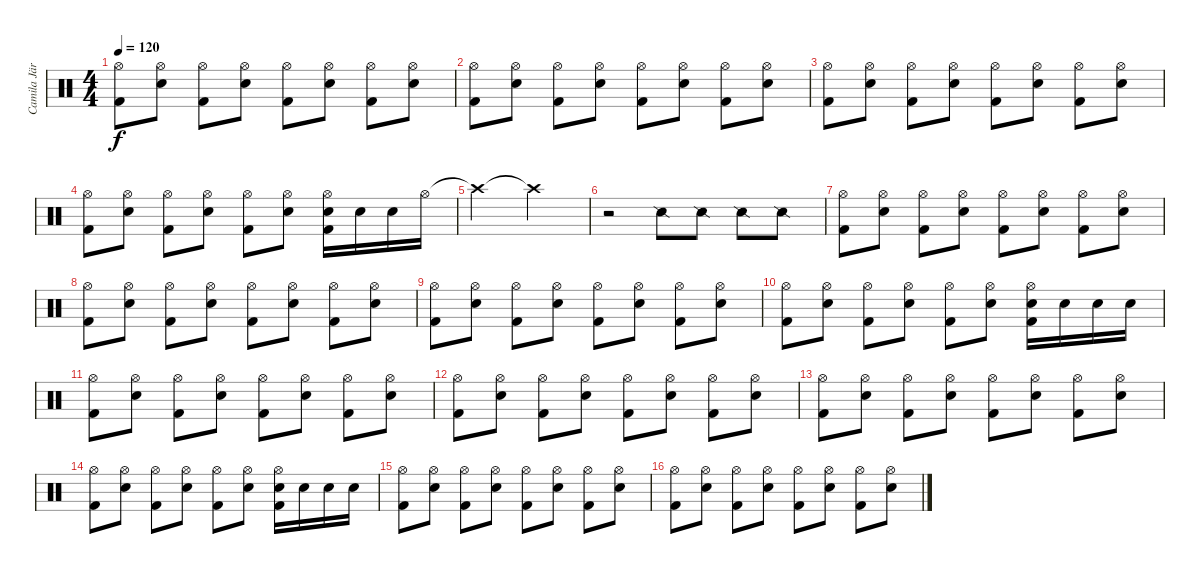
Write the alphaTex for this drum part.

\track ("Camila Jära" "Camila Jär") {instrument percussion}
\staff {score}
\articulation defaults
\ts (4 4)
\tempo 120
\clef neutral
\ks c
("Hi-Hat (open)" "Kick (hit) 2").8{dy f} ("Hi-Hat (open)" "Snare (hit) 2").8 ("Hi-Hat (open)" "Kick (hit) 2").8 ("Hi-Hat (open)" "Snare (hit) 2").8 ("Hi-Hat (open)" "Kick (hit) 2").8 ("Hi-Hat (open)" "Snare (hit) 2").8 ("Hi-Hat (open)" "Kick (hit) 2").8 ("Hi-Hat (open)" "Snare (hit) 2").8 |
("Hi-Hat (open)" "Kick (hit) 2").8 ("Hi-Hat (open)" "Snare (hit) 2").8 ("Hi-Hat (open)" "Kick (hit) 2").8 ("Hi-Hat (open)" "Snare (hit) 2").8 ("Hi-Hat (open)" "Kick (hit) 2").8 ("Hi-Hat (open)" "Snare (hit) 2").8 ("Hi-Hat (open)" "Kick (hit) 2").8 ("Hi-Hat (open)" "Snare (hit) 2").8 |
("Hi-Hat (open)" "Kick (hit) 2").8 ("Hi-Hat (open)" "Snare (hit) 2").8 ("Hi-Hat (open)" "Kick (hit) 2").8 ("Hi-Hat (open)" "Snare (hit) 2").8 ("Hi-Hat (open)" "Kick (hit) 2").8 ("Hi-Hat (open)" "Snare (hit) 2").8 ("Hi-Hat (open)" "Kick (hit) 2").8 ("Hi-Hat (open)" "Snare (hit) 2").8 |
("Hi-Hat (open)" "Kick (hit) 2").8 ("Hi-Hat (open)" "Snare (hit) 2").8 ("Hi-Hat (open)" "Kick (hit) 2").8 ("Hi-Hat (open)" "Snare (hit) 2").8 ("Hi-Hat (open)" "Kick (hit) 2").8 ("Hi-Hat (open)" "Snare (hit) 2").8 ("Hi-Hat (open)" "Snare (hit) 2" "Kick (hit) 2").16 "Snare (hit) 2".16 "Snare (hit) 2".16 "Hi-Hat (open)".16 |
"Crash high (hit)"{t}.2 "Crash high (hit)"{t}.2 |
r.2 "Snare (side stick) 2".8 "Snare (side stick) 2".8 "Snare (side stick) 2".8 "Snare (side stick) 2".8 |
("Hi-Hat (open)" "Kick (hit) 2").8 ("Hi-Hat (open)" "Snare (hit) 2").8 ("Hi-Hat (open)" "Kick (hit) 2").8 ("Hi-Hat (open)" "Snare (hit) 2").8 ("Hi-Hat (open)" "Kick (hit) 2").8 ("Hi-Hat (open)" "Snare (hit) 2").8 ("Hi-Hat (open)" "Kick (hit) 2").8 ("Hi-Hat (open)" "Snare (hit) 2").8 |
("Hi-Hat (open)" "Kick (hit) 2").8 ("Hi-Hat (open)" "Snare (hit) 2").8 ("Hi-Hat (open)" "Kick (hit) 2").8 ("Hi-Hat (open)" "Snare (hit) 2").8 ("Hi-Hat (open)" "Kick (hit) 2").8 ("Hi-Hat (open)" "Snare (hit) 2").8 ("Hi-Hat (open)" "Kick (hit) 2").8 ("Hi-Hat (open)" "Snare (hit) 2").8 |
("Hi-Hat (open)" "Kick (hit) 2").8 ("Hi-Hat (open)" "Snare (hit) 2").8 ("Hi-Hat (open)" "Kick (hit) 2").8 ("Hi-Hat (open)" "Snare (hit) 2").8 ("Hi-Hat (open)" "Kick (hit) 2").8 ("Hi-Hat (open)" "Snare (hit) 2").8 ("Hi-Hat (open)" "Kick (hit) 2").8 ("Hi-Hat (open)" "Snare (hit) 2").8 |
("Hi-Hat (open)" "Kick (hit) 2").8 ("Hi-Hat (open)" "Snare (hit) 2").8 ("Hi-Hat (open)" "Kick (hit) 2").8 ("Hi-Hat (open)" "Snare (hit) 2").8 ("Hi-Hat (open)" "Kick (hit) 2").8 ("Hi-Hat (open)" "Snare (hit) 2").8 ("Hi-Hat (open)" "Snare (hit) 2" "Kick (hit) 2").16 "Snare (hit) 2".16 "Snare (hit) 2".16 "Snare (hit) 2".16 |
("Hi-Hat (open)" "Kick (hit) 2").8 ("Hi-Hat (open)" "Snare (hit) 2").8 ("Hi-Hat (open)" "Kick (hit) 2").8 ("Hi-Hat (open)" "Snare (hit) 2").8 ("Hi-Hat (open)" "Kick (hit) 2").8 ("Hi-Hat (open)" "Snare (hit) 2").8 ("Hi-Hat (open)" "Kick (hit) 2").8 ("Hi-Hat (open)" "Snare (hit) 2").8 |
("Hi-Hat (open)" "Kick (hit) 2").8 ("Hi-Hat (open)" "Snare (hit) 2").8 ("Hi-Hat (open)" "Kick (hit) 2").8 ("Hi-Hat (open)" "Snare (hit) 2").8 ("Hi-Hat (open)" "Kick (hit) 2").8 ("Hi-Hat (open)" "Snare (hit) 2").8 ("Hi-Hat (open)" "Kick (hit) 2").8 ("Hi-Hat (open)" "Snare (hit) 2").8 |
("Hi-Hat (open)" "Kick (hit) 2").8 ("Hi-Hat (open)" "Snare (hit) 2").8 ("Hi-Hat (open)" "Kick (hit) 2").8 ("Hi-Hat (open)" "Snare (hit) 2").8 ("Hi-Hat (open)" "Kick (hit) 2").8 ("Hi-Hat (open)" "Snare (hit) 2").8 ("Hi-Hat (open)" "Kick (hit) 2").8 ("Hi-Hat (open)" "Snare (hit) 2").8 |
("Hi-Hat (open)" "Kick (hit) 2").8 ("Hi-Hat (open)" "Snare (hit) 2").8 ("Hi-Hat (open)" "Kick (hit) 2").8 ("Hi-Hat (open)" "Snare (hit) 2").8 ("Hi-Hat (open)" "Kick (hit) 2").8 ("Hi-Hat (open)" "Snare (hit) 2").8 ("Hi-Hat (open)" "Snare (hit) 2" "Kick (hit) 2").16 "Snare (hit) 2".16 "Snare (hit) 2".16 "Snare (hit) 2".16 |
("Hi-Hat (open)" "Kick (hit) 2").8 ("Hi-Hat (open)" "Snare (hit) 2").8 ("Hi-Hat (open)" "Kick (hit) 2").8 ("Hi-Hat (open)" "Snare (hit) 2").8 ("Hi-Hat (open)" "Kick (hit) 2").8 ("Hi-Hat (open)" "Snare (hit) 2").8 ("Hi-Hat (open)" "Kick (hit) 2").8 ("Hi-Hat (open)" "Snare (hit) 2").8 |
("Hi-Hat (open)" "Kick (hit) 2").8 ("Hi-Hat (open)" "Snare (hit) 2").8 ("Hi-Hat (open)" "Kick (hit) 2").8 ("Hi-Hat (open)" "Snare (hit) 2").8 ("Hi-Hat (open)" "Kick (hit) 2").8 ("Hi-Hat (open)" "Snare (hit) 2").8 ("Hi-Hat (open)" "Kick (hit) 2").8 ("Hi-Hat (open)" "Snare (hit) 2").8
